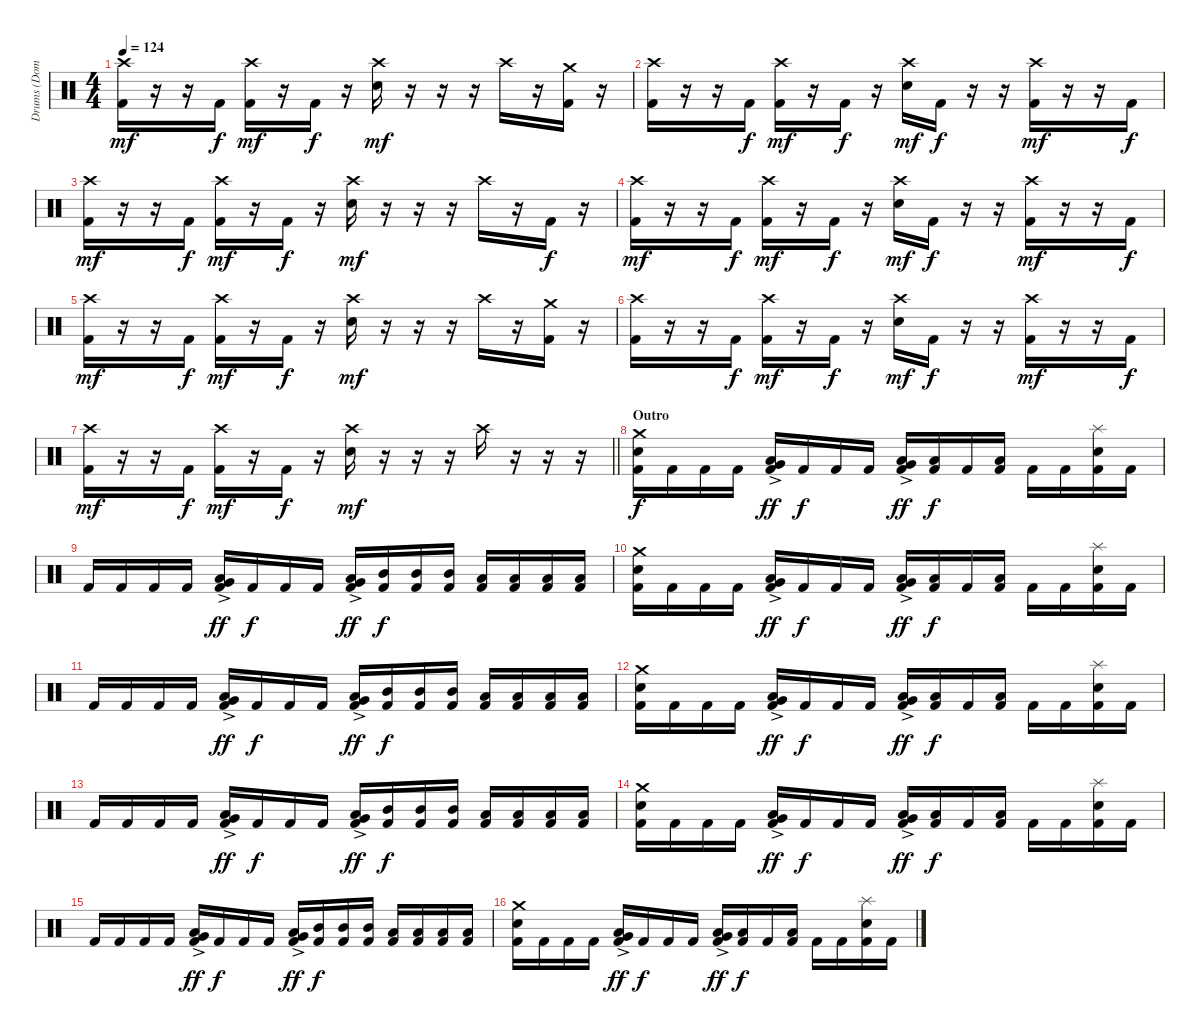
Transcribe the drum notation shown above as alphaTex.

\track ("Drums (Dominik)" "Drums (Dom") {instrument percussion}
\staff {score}
\articulation defaults
\ts (4 4)
\tempo 124
\clef neutral
\ks c
("Crash high (hit)" "Kick (hit) 2").16{dy mf} r.16 r.16 "Kick (hit) 2".16{dy f} ("Crash high (hit)" "Kick (hit) 2").16{dy mf} r.16 "Kick (hit) 2".16{dy f} r.16 ("Crash high (hit)" "Electric Snare (hit)").16{dy mf} r.16 r.16 r.16 "Crash high (hit)".16 r.16 ("Crash medium (hit)" "Kick (hit) 2").16 r.16 |
("Crash high (hit)" "Kick (hit) 2").16 r.16 r.16 "Kick (hit) 2".16{dy f} ("Crash high (hit)" "Kick (hit) 2").16{dy mf} r.16 "Kick (hit) 2".16{dy f} r.16 ("Crash high (hit)" "Electric Snare (hit)").16{dy mf} "Kick (hit) 2".16{dy f} r.16 r.16 ("Crash high (hit)" "Kick (hit) 2").16{dy mf} r.16 r.16 "Kick (hit) 2".16{dy f} |
("Crash high (hit)" "Kick (hit) 2").16{dy mf} r.16 r.16 "Kick (hit) 2".16{dy f} ("Crash high (hit)" "Kick (hit) 2").16{dy mf} r.16 "Kick (hit) 2".16{dy f} r.16 ("Crash high (hit)" "Electric Snare (hit)").16{dy mf} r.16 r.16 r.16 "Crash high (hit)".16 r.16 "Kick (hit) 2".16{dy f} r.16 |
("Crash high (hit)" "Kick (hit) 2").16{dy mf} r.16 r.16 "Kick (hit) 2".16{dy f} ("Crash high (hit)" "Kick (hit) 2").16{dy mf} r.16 "Kick (hit) 2".16{dy f} r.16 ("Crash high (hit)" "Electric Snare (hit)").16{dy mf} "Kick (hit) 2".16{dy f} r.16 r.16 ("Crash high (hit)" "Kick (hit) 2").16{dy mf} r.16 r.16 "Kick (hit) 2".16{dy f} |
("Crash high (hit)" "Kick (hit) 2").16{dy mf} r.16 r.16 "Kick (hit) 2".16{dy f} ("Crash high (hit)" "Kick (hit) 2").16{dy mf} r.16 "Kick (hit) 2".16{dy f} r.16 ("Crash high (hit)" "Electric Snare (hit)").16{dy mf} r.16 r.16 r.16 "Crash high (hit)".16 r.16 ("Crash medium (hit)" "Kick (hit) 2").16 r.16 |
("Crash high (hit)" "Kick (hit) 2").16 r.16 r.16 "Kick (hit) 2".16{dy f} ("Crash high (hit)" "Kick (hit) 2").16{dy mf} r.16 "Kick (hit) 2".16{dy f} r.16 ("Crash high (hit)" "Electric Snare (hit)").16{dy mf} "Kick (hit) 2".16{dy f} r.16 r.16 ("Crash high (hit)" "Kick (hit) 2").16{dy mf} r.16 r.16 "Kick (hit) 2".16{dy f} |
\barLineRight lightlight
("Crash high (hit)" "Kick (hit) 2").16{dy mf} r.16 r.16 "Kick (hit) 2".16{dy f} ("Crash high (hit)" "Kick (hit) 2").16{dy mf} r.16 "Kick (hit) 2".16{dy f} r.16 ("Crash high (hit)" "Electric Snare (hit)").16{dy mf} r.16 r.16 r.16 "Crash high (hit)".16 r.16 r.16 r.16 |
\section ("" "Outro")
("Crash medium (hit)" "Electric Snare (hit)" "Kick (hit) 2").16{dy f} "Kick (hit) 2".16 "Kick (hit) 2".16 "Kick (hit) 2".16 ("Very Low Tom (hit)"{ac} "Low Floor Tom (hit)"{ac} "Kick (hit) 2").16{dy ff} "Kick (hit) 2".16{dy f} "Kick (hit) 2".16 "Kick (hit) 2".16 ("Very Low Tom (hit)"{ac} "Low Floor Tom (hit)"{ac} "Kick (hit) 2").16{dy ff} ("Low Tom (hit)" "Kick (hit) 2").16{dy f} "Kick (hit) 2".16 ("Low Floor Tom (hit)" "Kick (hit) 2").16 "Kick (hit) 2".16 "Kick (hit) 2".16 ("Splash (hit)" "Electric Snare (hit)" "Kick (hit) 2").16 "Kick (hit) 2".16 |
"Kick (hit) 2".16 "Kick (hit) 2".16 "Kick (hit) 2".16 "Kick (hit) 2".16 ("Very Low Tom (hit)"{ac} "Low Floor Tom (hit)"{ac} "Kick (hit) 2").16{dy ff} "Kick (hit) 2".16{dy f} "Kick (hit) 2".16 "Kick (hit) 2".16 ("Very Low Tom (hit)"{ac} "Low Floor Tom (hit)"{ac} "Kick (hit) 2").16{dy ff} ("Mid Tom (hit)" "Kick (hit) 2").16{dy f} ("Mid Tom (hit)" "Kick (hit) 2").16 ("Mid Tom (hit)" "Kick (hit) 2").16 ("Low Tom (hit)" "Kick (hit) 2").16 ("Low Tom (hit)" "Kick (hit) 2").16 ("Low Tom (hit)" "Kick (hit) 2").16 ("Low Tom (hit)" "Kick (hit) 2").16 |
("Crash medium (hit)" "Electric Snare (hit)" "Kick (hit) 2").16 "Kick (hit) 2".16 "Kick (hit) 2".16 "Kick (hit) 2".16 ("Very Low Tom (hit)"{ac} "Low Floor Tom (hit)"{ac} "Kick (hit) 2").16{dy ff} "Kick (hit) 2".16{dy f} "Kick (hit) 2".16 "Kick (hit) 2".16 ("Very Low Tom (hit)"{ac} "Low Floor Tom (hit)"{ac} "Kick (hit) 2").16{dy ff} ("Low Tom (hit)" "Kick (hit) 2").16{dy f} "Kick (hit) 2".16 ("Low Floor Tom (hit)" "Kick (hit) 2").16 "Kick (hit) 2".16 "Kick (hit) 2".16 ("Splash (hit)" "Electric Snare (hit)" "Kick (hit) 2").16 "Kick (hit) 2".16 |
"Kick (hit) 2".16 "Kick (hit) 2".16 "Kick (hit) 2".16 "Kick (hit) 2".16 ("Very Low Tom (hit)"{ac} "Low Floor Tom (hit)"{ac} "Kick (hit) 2").16{dy ff} "Kick (hit) 2".16{dy f} "Kick (hit) 2".16 "Kick (hit) 2".16 ("Very Low Tom (hit)"{ac} "Low Floor Tom (hit)"{ac} "Kick (hit) 2").16{dy ff} ("Mid Tom (hit)" "Kick (hit) 2").16{dy f} ("Mid Tom (hit)" "Kick (hit) 2").16 ("Mid Tom (hit)" "Kick (hit) 2").16 ("Low Tom (hit)" "Kick (hit) 2").16 ("Low Tom (hit)" "Kick (hit) 2").16 ("Low Tom (hit)" "Kick (hit) 2").16 ("Low Tom (hit)" "Kick (hit) 2").16 |
("Crash medium (hit)" "Electric Snare (hit)" "Kick (hit) 2").16 "Kick (hit) 2".16 "Kick (hit) 2".16 "Kick (hit) 2".16 ("Very Low Tom (hit)"{ac} "Low Floor Tom (hit)"{ac} "Kick (hit) 2").16{dy ff} "Kick (hit) 2".16{dy f} "Kick (hit) 2".16 "Kick (hit) 2".16 ("Very Low Tom (hit)"{ac} "Low Floor Tom (hit)"{ac} "Kick (hit) 2").16{dy ff} ("Low Tom (hit)" "Kick (hit) 2").16{dy f} "Kick (hit) 2".16 ("Low Floor Tom (hit)" "Kick (hit) 2").16 "Kick (hit) 2".16 "Kick (hit) 2".16 ("Splash (hit)" "Electric Snare (hit)" "Kick (hit) 2").16 "Kick (hit) 2".16 |
"Kick (hit) 2".16 "Kick (hit) 2".16 "Kick (hit) 2".16 "Kick (hit) 2".16 ("Very Low Tom (hit)"{ac} "Low Floor Tom (hit)"{ac} "Kick (hit) 2").16{dy ff} "Kick (hit) 2".16{dy f} "Kick (hit) 2".16 "Kick (hit) 2".16 ("Very Low Tom (hit)"{ac} "Low Floor Tom (hit)"{ac} "Kick (hit) 2").16{dy ff} ("Mid Tom (hit)" "Kick (hit) 2").16{dy f} ("Mid Tom (hit)" "Kick (hit) 2").16 ("Mid Tom (hit)" "Kick (hit) 2").16 ("Low Tom (hit)" "Kick (hit) 2").16 ("Low Tom (hit)" "Kick (hit) 2").16 ("Low Tom (hit)" "Kick (hit) 2").16 ("Low Tom (hit)" "Kick (hit) 2").16 |
("Crash medium (hit)" "Electric Snare (hit)" "Kick (hit) 2").16 "Kick (hit) 2".16 "Kick (hit) 2".16 "Kick (hit) 2".16 ("Very Low Tom (hit)"{ac} "Low Floor Tom (hit)"{ac} "Kick (hit) 2").16{dy ff} "Kick (hit) 2".16{dy f} "Kick (hit) 2".16 "Kick (hit) 2".16 ("Very Low Tom (hit)"{ac} "Low Floor Tom (hit)"{ac} "Kick (hit) 2").16{dy ff} ("Low Tom (hit)" "Kick (hit) 2").16{dy f} "Kick (hit) 2".16 ("Low Floor Tom (hit)" "Kick (hit) 2").16 "Kick (hit) 2".16 "Kick (hit) 2".16 ("Splash (hit)" "Electric Snare (hit)" "Kick (hit) 2").16 "Kick (hit) 2".16 |
"Kick (hit) 2".16 "Kick (hit) 2".16 "Kick (hit) 2".16 "Kick (hit) 2".16 ("Very Low Tom (hit)"{ac} "Low Floor Tom (hit)"{ac} "Kick (hit) 2").16{dy ff} "Kick (hit) 2".16{dy f} "Kick (hit) 2".16 "Kick (hit) 2".16 ("Very Low Tom (hit)"{ac} "Low Floor Tom (hit)"{ac} "Kick (hit) 2").16{dy ff} ("Mid Tom (hit)" "Kick (hit) 2").16{dy f} ("Mid Tom (hit)" "Kick (hit) 2").16 ("Mid Tom (hit)" "Kick (hit) 2").16 ("Low Tom (hit)" "Kick (hit) 2").16 ("Low Tom (hit)" "Kick (hit) 2").16 ("Low Tom (hit)" "Kick (hit) 2").16 ("Low Tom (hit)" "Kick (hit) 2").16 |
("Crash medium (hit)" "Electric Snare (hit)" "Kick (hit) 2").16 "Kick (hit) 2".16 "Kick (hit) 2".16 "Kick (hit) 2".16 ("Very Low Tom (hit)"{ac} "Low Floor Tom (hit)"{ac} "Kick (hit) 2").16{dy ff} "Kick (hit) 2".16{dy f} "Kick (hit) 2".16 "Kick (hit) 2".16 ("Very Low Tom (hit)"{ac} "Low Floor Tom (hit)"{ac} "Kick (hit) 2").16{dy ff} ("Low Tom (hit)" "Kick (hit) 2").16{dy f} "Kick (hit) 2".16 ("Low Floor Tom (hit)" "Kick (hit) 2").16 "Kick (hit) 2".16 "Kick (hit) 2".16 ("Splash (hit)" "Electric Snare (hit)" "Kick (hit) 2").16 "Kick (hit) 2".16
